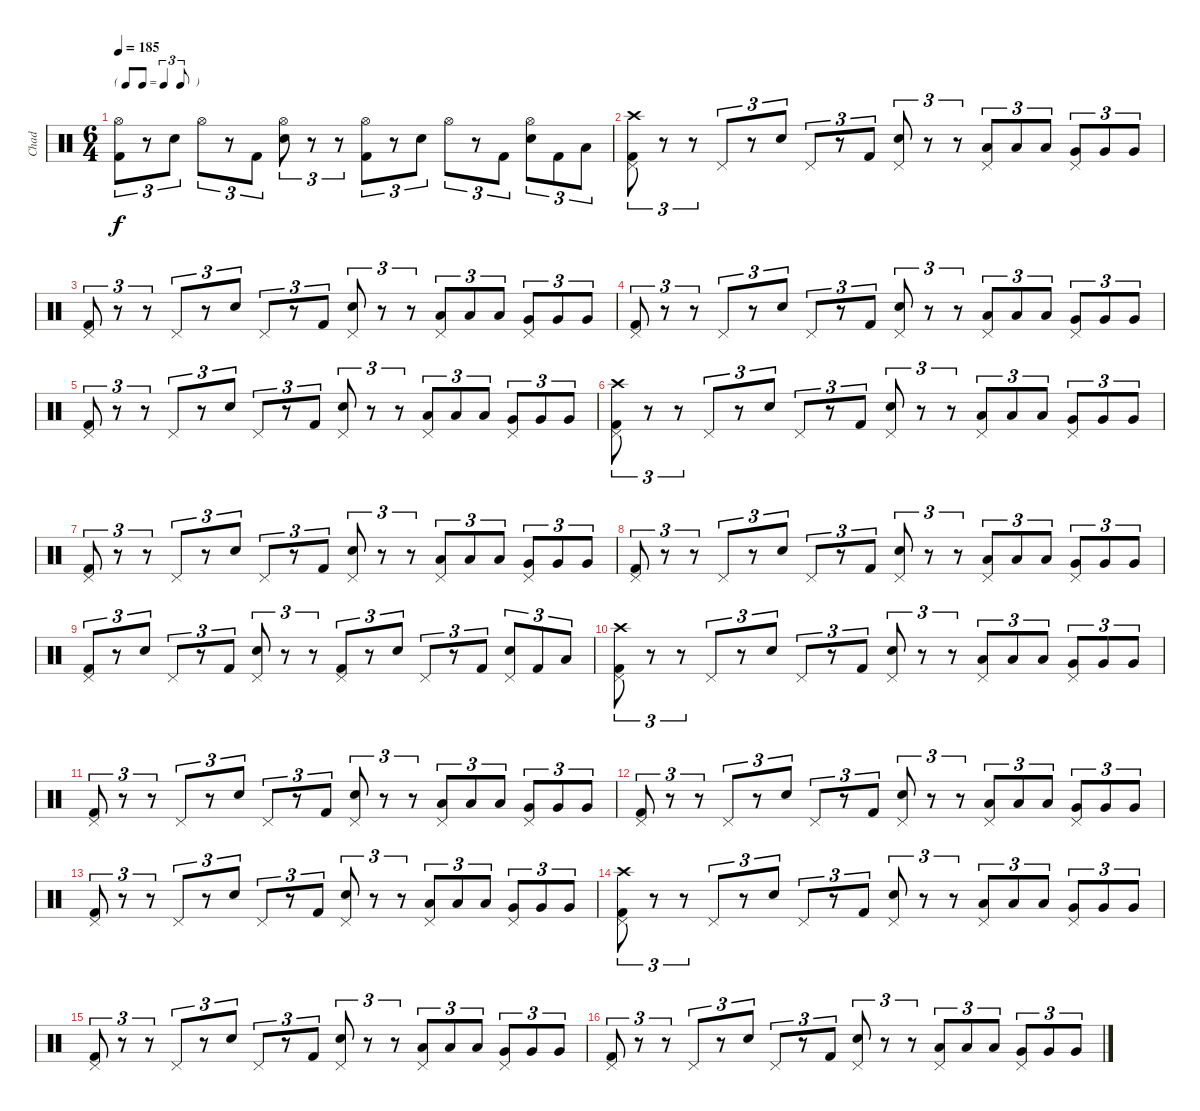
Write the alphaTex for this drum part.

\track ("Chad" "Chad") {instrument percussion}
\staff {score}
\articulation defaults
\ts (6 4)
\tf triplet8th
\tempo 185
\clef neutral
\ks c
("Kick (hit) 2" "Hi-Hat (open)").8{tu (3 2) dy f} r.8{tu (3 2)} "Electric Snare (hit)".8{tu (3 2)} "Hi-Hat (open)".8{tu (3 2)} r.8{tu (3 2)} "Kick (hit) 2".8{tu (3 2)} ("Electric Snare (hit)" "Hi-Hat (open)").8{tu (3 2)} r.8{tu (3 2)} r.8{tu (3 2)} ("Kick (hit) 2" "Hi-Hat (open)").8{tu (3 2)} r.8{tu (3 2)} "Electric Snare (hit)".8{tu (3 2)} "Hi-Hat (open)".8{tu (3 2)} r.8{tu (3 2)} "Kick (hit) 2".8{tu (3 2)} ("Electric Snare (hit)" "Hi-Hat (open)").8{tu (3 2)} "Kick (hit) 2".8{tu (3 2)} "Low Tom (hit)".8{tu (3 2)} |
("Kick (hit) 2" "Pedal Hi-Hat (hit)" "Crash high (hit)").8{tu (3 2)} r.8{tu (3 2)} r.8{tu (3 2)} "Pedal Hi-Hat (hit)".8{tu (3 2)} r.8{tu (3 2)} "Electric Snare (hit)".8{tu (3 2)} "Pedal Hi-Hat (hit)".8{tu (3 2)} r.8{tu (3 2)} "Kick (hit) 2".8{tu (3 2)} ("Electric Snare (hit)" "Pedal Hi-Hat (hit)").8{tu (3 2)} r.8{tu (3 2)} r.8{tu (3 2)} ("Low Tom (hit)" "Pedal Hi-Hat (hit)").8{tu (3 2)} "Low Tom (hit)".8{tu (3 2)} "Low Tom (hit)".8{tu (3 2)} ("Very Low Tom (hit)" "Pedal Hi-Hat (hit)").8{tu (3 2)} "Very Low Tom (hit)".8{tu (3 2)} "Very Low Tom (hit)".8{tu (3 2)} |
("Kick (hit) 2" "Pedal Hi-Hat (hit)").8{tu (3 2)} r.8{tu (3 2)} r.8{tu (3 2)} "Pedal Hi-Hat (hit)".8{tu (3 2)} r.8{tu (3 2)} "Electric Snare (hit)".8{tu (3 2)} "Pedal Hi-Hat (hit)".8{tu (3 2)} r.8{tu (3 2)} "Kick (hit) 2".8{tu (3 2)} ("Electric Snare (hit)" "Pedal Hi-Hat (hit)").8{tu (3 2)} r.8{tu (3 2)} r.8{tu (3 2)} ("Low Tom (hit)" "Pedal Hi-Hat (hit)").8{tu (3 2)} "Low Tom (hit)".8{tu (3 2)} "Low Tom (hit)".8{tu (3 2)} ("Very Low Tom (hit)" "Pedal Hi-Hat (hit)").8{tu (3 2)} "Very Low Tom (hit)".8{tu (3 2)} "Very Low Tom (hit)".8{tu (3 2)} |
("Kick (hit) 2" "Pedal Hi-Hat (hit)").8{tu (3 2)} r.8{tu (3 2)} r.8{tu (3 2)} "Pedal Hi-Hat (hit)".8{tu (3 2)} r.8{tu (3 2)} "Electric Snare (hit)".8{tu (3 2)} "Pedal Hi-Hat (hit)".8{tu (3 2)} r.8{tu (3 2)} "Kick (hit) 2".8{tu (3 2)} ("Electric Snare (hit)" "Pedal Hi-Hat (hit)").8{tu (3 2)} r.8{tu (3 2)} r.8{tu (3 2)} ("Low Tom (hit)" "Pedal Hi-Hat (hit)").8{tu (3 2)} "Low Tom (hit)".8{tu (3 2)} "Low Tom (hit)".8{tu (3 2)} ("Very Low Tom (hit)" "Pedal Hi-Hat (hit)").8{tu (3 2)} "Very Low Tom (hit)".8{tu (3 2)} "Very Low Tom (hit)".8{tu (3 2)} |
("Kick (hit) 2" "Pedal Hi-Hat (hit)").8{tu (3 2)} r.8{tu (3 2)} r.8{tu (3 2)} "Pedal Hi-Hat (hit)".8{tu (3 2)} r.8{tu (3 2)} "Electric Snare (hit)".8{tu (3 2)} "Pedal Hi-Hat (hit)".8{tu (3 2)} r.8{tu (3 2)} "Kick (hit) 2".8{tu (3 2)} ("Electric Snare (hit)" "Pedal Hi-Hat (hit)").8{tu (3 2)} r.8{tu (3 2)} r.8{tu (3 2)} ("Low Tom (hit)" "Pedal Hi-Hat (hit)").8{tu (3 2)} "Low Tom (hit)".8{tu (3 2)} "Low Tom (hit)".8{tu (3 2)} ("Very Low Tom (hit)" "Pedal Hi-Hat (hit)").8{tu (3 2)} "Very Low Tom (hit)".8{tu (3 2)} "Very Low Tom (hit)".8{tu (3 2)} |
("Kick (hit) 2" "Pedal Hi-Hat (hit)" "Crash high (hit)").8{tu (3 2)} r.8{tu (3 2)} r.8{tu (3 2)} "Pedal Hi-Hat (hit)".8{tu (3 2)} r.8{tu (3 2)} "Electric Snare (hit)".8{tu (3 2)} "Pedal Hi-Hat (hit)".8{tu (3 2)} r.8{tu (3 2)} "Kick (hit) 2".8{tu (3 2)} ("Electric Snare (hit)" "Pedal Hi-Hat (hit)").8{tu (3 2)} r.8{tu (3 2)} r.8{tu (3 2)} ("Low Tom (hit)" "Pedal Hi-Hat (hit)").8{tu (3 2)} "Low Tom (hit)".8{tu (3 2)} "Low Tom (hit)".8{tu (3 2)} ("Very Low Tom (hit)" "Pedal Hi-Hat (hit)").8{tu (3 2)} "Very Low Tom (hit)".8{tu (3 2)} "Very Low Tom (hit)".8{tu (3 2)} |
("Kick (hit) 2" "Pedal Hi-Hat (hit)").8{tu (3 2)} r.8{tu (3 2)} r.8{tu (3 2)} "Pedal Hi-Hat (hit)".8{tu (3 2)} r.8{tu (3 2)} "Electric Snare (hit)".8{tu (3 2)} "Pedal Hi-Hat (hit)".8{tu (3 2)} r.8{tu (3 2)} "Kick (hit) 2".8{tu (3 2)} ("Electric Snare (hit)" "Pedal Hi-Hat (hit)").8{tu (3 2)} r.8{tu (3 2)} r.8{tu (3 2)} ("Low Tom (hit)" "Pedal Hi-Hat (hit)").8{tu (3 2)} "Low Tom (hit)".8{tu (3 2)} "Low Tom (hit)".8{tu (3 2)} ("Very Low Tom (hit)" "Pedal Hi-Hat (hit)").8{tu (3 2)} "Very Low Tom (hit)".8{tu (3 2)} "Very Low Tom (hit)".8{tu (3 2)} |
("Kick (hit) 2" "Pedal Hi-Hat (hit)").8{tu (3 2)} r.8{tu (3 2)} r.8{tu (3 2)} "Pedal Hi-Hat (hit)".8{tu (3 2)} r.8{tu (3 2)} "Electric Snare (hit)".8{tu (3 2)} "Pedal Hi-Hat (hit)".8{tu (3 2)} r.8{tu (3 2)} "Kick (hit) 2".8{tu (3 2)} ("Electric Snare (hit)" "Pedal Hi-Hat (hit)").8{tu (3 2)} r.8{tu (3 2)} r.8{tu (3 2)} ("Low Tom (hit)" "Pedal Hi-Hat (hit)").8{tu (3 2)} "Low Tom (hit)".8{tu (3 2)} "Low Tom (hit)".8{tu (3 2)} ("Very Low Tom (hit)" "Pedal Hi-Hat (hit)").8{tu (3 2)} "Very Low Tom (hit)".8{tu (3 2)} "Very Low Tom (hit)".8{tu (3 2)} |
("Kick (hit) 2" "Pedal Hi-Hat (hit)").8{tu (3 2)} r.8{tu (3 2)} "Electric Snare (hit)".8{tu (3 2)} "Pedal Hi-Hat (hit)".8{tu (3 2)} r.8{tu (3 2)} "Kick (hit) 2".8{tu (3 2)} ("Electric Snare (hit)" "Pedal Hi-Hat (hit)").8{tu (3 2)} r.8{tu (3 2)} r.8{tu (3 2)} ("Kick (hit) 2" "Pedal Hi-Hat (hit)").8{tu (3 2)} r.8{tu (3 2)} "Electric Snare (hit)".8{tu (3 2)} "Pedal Hi-Hat (hit)".8{tu (3 2)} r.8{tu (3 2)} "Kick (hit) 2".8{tu (3 2)} ("Electric Snare (hit)" "Pedal Hi-Hat (hit)").8{tu (3 2)} "Kick (hit) 2".8{tu (3 2)} "Low Tom (hit)".8{tu (3 2)} |
("Kick (hit) 2" "Pedal Hi-Hat (hit)" "Crash high (hit)").8{tu (3 2)} r.8{tu (3 2)} r.8{tu (3 2)} "Pedal Hi-Hat (hit)".8{tu (3 2)} r.8{tu (3 2)} "Electric Snare (hit)".8{tu (3 2)} "Pedal Hi-Hat (hit)".8{tu (3 2)} r.8{tu (3 2)} "Kick (hit) 2".8{tu (3 2)} ("Electric Snare (hit)" "Pedal Hi-Hat (hit)").8{tu (3 2)} r.8{tu (3 2)} r.8{tu (3 2)} ("Low Tom (hit)" "Pedal Hi-Hat (hit)").8{tu (3 2)} "Low Tom (hit)".8{tu (3 2)} "Low Tom (hit)".8{tu (3 2)} ("Very Low Tom (hit)" "Pedal Hi-Hat (hit)").8{tu (3 2)} "Very Low Tom (hit)".8{tu (3 2)} "Very Low Tom (hit)".8{tu (3 2)} |
("Kick (hit) 2" "Pedal Hi-Hat (hit)").8{tu (3 2)} r.8{tu (3 2)} r.8{tu (3 2)} "Pedal Hi-Hat (hit)".8{tu (3 2)} r.8{tu (3 2)} "Electric Snare (hit)".8{tu (3 2)} "Pedal Hi-Hat (hit)".8{tu (3 2)} r.8{tu (3 2)} "Kick (hit) 2".8{tu (3 2)} ("Electric Snare (hit)" "Pedal Hi-Hat (hit)").8{tu (3 2)} r.8{tu (3 2)} r.8{tu (3 2)} ("Low Tom (hit)" "Pedal Hi-Hat (hit)").8{tu (3 2)} "Low Tom (hit)".8{tu (3 2)} "Low Tom (hit)".8{tu (3 2)} ("Very Low Tom (hit)" "Pedal Hi-Hat (hit)").8{tu (3 2)} "Very Low Tom (hit)".8{tu (3 2)} "Very Low Tom (hit)".8{tu (3 2)} |
("Kick (hit) 2" "Pedal Hi-Hat (hit)").8{tu (3 2)} r.8{tu (3 2)} r.8{tu (3 2)} "Pedal Hi-Hat (hit)".8{tu (3 2)} r.8{tu (3 2)} "Electric Snare (hit)".8{tu (3 2)} "Pedal Hi-Hat (hit)".8{tu (3 2)} r.8{tu (3 2)} "Kick (hit) 2".8{tu (3 2)} ("Electric Snare (hit)" "Pedal Hi-Hat (hit)").8{tu (3 2)} r.8{tu (3 2)} r.8{tu (3 2)} ("Low Tom (hit)" "Pedal Hi-Hat (hit)").8{tu (3 2)} "Low Tom (hit)".8{tu (3 2)} "Low Tom (hit)".8{tu (3 2)} ("Very Low Tom (hit)" "Pedal Hi-Hat (hit)").8{tu (3 2)} "Very Low Tom (hit)".8{tu (3 2)} "Very Low Tom (hit)".8{tu (3 2)} |
("Kick (hit) 2" "Pedal Hi-Hat (hit)").8{tu (3 2)} r.8{tu (3 2)} r.8{tu (3 2)} "Pedal Hi-Hat (hit)".8{tu (3 2)} r.8{tu (3 2)} "Electric Snare (hit)".8{tu (3 2)} "Pedal Hi-Hat (hit)".8{tu (3 2)} r.8{tu (3 2)} "Kick (hit) 2".8{tu (3 2)} ("Electric Snare (hit)" "Pedal Hi-Hat (hit)").8{tu (3 2)} r.8{tu (3 2)} r.8{tu (3 2)} ("Low Tom (hit)" "Pedal Hi-Hat (hit)").8{tu (3 2)} "Low Tom (hit)".8{tu (3 2)} "Low Tom (hit)".8{tu (3 2)} ("Very Low Tom (hit)" "Pedal Hi-Hat (hit)").8{tu (3 2)} "Very Low Tom (hit)".8{tu (3 2)} "Very Low Tom (hit)".8{tu (3 2)} |
("Kick (hit) 2" "Pedal Hi-Hat (hit)" "Crash high (hit)").8{tu (3 2)} r.8{tu (3 2)} r.8{tu (3 2)} "Pedal Hi-Hat (hit)".8{tu (3 2)} r.8{tu (3 2)} "Electric Snare (hit)".8{tu (3 2)} "Pedal Hi-Hat (hit)".8{tu (3 2)} r.8{tu (3 2)} "Kick (hit) 2".8{tu (3 2)} ("Electric Snare (hit)" "Pedal Hi-Hat (hit)").8{tu (3 2)} r.8{tu (3 2)} r.8{tu (3 2)} ("Low Tom (hit)" "Pedal Hi-Hat (hit)").8{tu (3 2)} "Low Tom (hit)".8{tu (3 2)} "Low Tom (hit)".8{tu (3 2)} ("Very Low Tom (hit)" "Pedal Hi-Hat (hit)").8{tu (3 2)} "Very Low Tom (hit)".8{tu (3 2)} "Very Low Tom (hit)".8{tu (3 2)} |
("Kick (hit) 2" "Pedal Hi-Hat (hit)").8{tu (3 2)} r.8{tu (3 2)} r.8{tu (3 2)} "Pedal Hi-Hat (hit)".8{tu (3 2)} r.8{tu (3 2)} "Electric Snare (hit)".8{tu (3 2)} "Pedal Hi-Hat (hit)".8{tu (3 2)} r.8{tu (3 2)} "Kick (hit) 2".8{tu (3 2)} ("Electric Snare (hit)" "Pedal Hi-Hat (hit)").8{tu (3 2)} r.8{tu (3 2)} r.8{tu (3 2)} ("Low Tom (hit)" "Pedal Hi-Hat (hit)").8{tu (3 2)} "Low Tom (hit)".8{tu (3 2)} "Low Tom (hit)".8{tu (3 2)} ("Very Low Tom (hit)" "Pedal Hi-Hat (hit)").8{tu (3 2)} "Very Low Tom (hit)".8{tu (3 2)} "Very Low Tom (hit)".8{tu (3 2)} |
("Kick (hit) 2" "Pedal Hi-Hat (hit)").8{tu (3 2)} r.8{tu (3 2)} r.8{tu (3 2)} "Pedal Hi-Hat (hit)".8{tu (3 2)} r.8{tu (3 2)} "Electric Snare (hit)".8{tu (3 2)} "Pedal Hi-Hat (hit)".8{tu (3 2)} r.8{tu (3 2)} "Kick (hit) 2".8{tu (3 2)} ("Electric Snare (hit)" "Pedal Hi-Hat (hit)").8{tu (3 2)} r.8{tu (3 2)} r.8{tu (3 2)} ("Low Tom (hit)" "Pedal Hi-Hat (hit)").8{tu (3 2)} "Low Tom (hit)".8{tu (3 2)} "Low Tom (hit)".8{tu (3 2)} ("Very Low Tom (hit)" "Pedal Hi-Hat (hit)").8{tu (3 2)} "Very Low Tom (hit)".8{tu (3 2)} "Very Low Tom (hit)".8{tu (3 2)}
